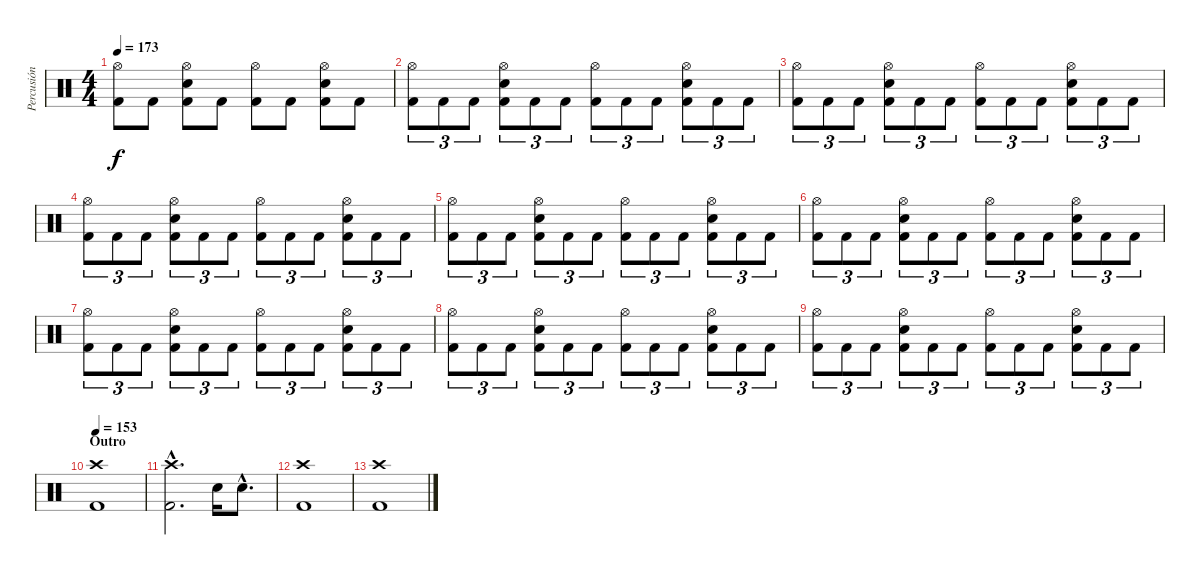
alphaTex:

\track ("Percusión" "Percusión") {instrument percussion}
\staff {score}
\articulation defaults
\ts (4 4)
\tempo 173
\clef neutral
\ks c
("Hi-Hat (open)" "Kick (hit) 2").8{dy f} "Kick (hit) 2".8 ("Hi-Hat (open)" "Snare (hit) 2" "Kick (hit) 2").8 "Kick (hit) 2".8 ("Hi-Hat (open)" "Kick (hit) 2").8 "Kick (hit) 2".8 ("Hi-Hat (open)" "Snare (hit) 2" "Kick (hit) 2").8 "Kick (hit) 2".8 |
("Hi-Hat (open)" "Kick (hit) 2").8{tu (3 2)} "Kick (hit) 2".8{tu (3 2)} "Kick (hit) 2".8{tu (3 2)} ("Hi-Hat (open)" "Snare (hit) 2" "Kick (hit) 2").8{tu (3 2)} "Kick (hit) 2".8{tu (3 2)} "Kick (hit) 2".8{tu (3 2)} ("Hi-Hat (open)" "Kick (hit) 2").8{tu (3 2)} "Kick (hit) 2".8{tu (3 2)} "Kick (hit) 2".8{tu (3 2)} ("Hi-Hat (open)" "Snare (hit) 2" "Kick (hit) 2").8{tu (3 2)} "Kick (hit) 2".8{tu (3 2)} "Kick (hit) 2".8{tu (3 2)} |
("Hi-Hat (open)" "Kick (hit) 2").8{tu (3 2)} "Kick (hit) 2".8{tu (3 2)} "Kick (hit) 2".8{tu (3 2)} ("Hi-Hat (open)" "Snare (hit) 2" "Kick (hit) 2").8{tu (3 2)} "Kick (hit) 2".8{tu (3 2)} "Kick (hit) 2".8{tu (3 2)} ("Hi-Hat (open)" "Kick (hit) 2").8{tu (3 2)} "Kick (hit) 2".8{tu (3 2)} "Kick (hit) 2".8{tu (3 2)} ("Hi-Hat (open)" "Snare (hit) 2" "Kick (hit) 2").8{tu (3 2)} "Kick (hit) 2".8{tu (3 2)} "Kick (hit) 2".8{tu (3 2)} |
("Hi-Hat (open)" "Kick (hit) 2").8{tu (3 2)} "Kick (hit) 2".8{tu (3 2)} "Kick (hit) 2".8{tu (3 2)} ("Hi-Hat (open)" "Snare (hit) 2" "Kick (hit) 2").8{tu (3 2)} "Kick (hit) 2".8{tu (3 2)} "Kick (hit) 2".8{tu (3 2)} ("Hi-Hat (open)" "Kick (hit) 2").8{tu (3 2)} "Kick (hit) 2".8{tu (3 2)} "Kick (hit) 2".8{tu (3 2)} ("Hi-Hat (open)" "Snare (hit) 2" "Kick (hit) 2").8{tu (3 2)} "Kick (hit) 2".8{tu (3 2)} "Kick (hit) 2".8{tu (3 2)} |
("Hi-Hat (open)" "Kick (hit) 2").8{tu (3 2)} "Kick (hit) 2".8{tu (3 2)} "Kick (hit) 2".8{tu (3 2)} ("Hi-Hat (open)" "Snare (hit) 2" "Kick (hit) 2").8{tu (3 2)} "Kick (hit) 2".8{tu (3 2)} "Kick (hit) 2".8{tu (3 2)} ("Hi-Hat (open)" "Kick (hit) 2").8{tu (3 2)} "Kick (hit) 2".8{tu (3 2)} "Kick (hit) 2".8{tu (3 2)} ("Hi-Hat (open)" "Snare (hit) 2" "Kick (hit) 2").8{tu (3 2)} "Kick (hit) 2".8{tu (3 2)} "Kick (hit) 2".8{tu (3 2)} |
("Hi-Hat (open)" "Kick (hit) 2").8{tu (3 2)} "Kick (hit) 2".8{tu (3 2)} "Kick (hit) 2".8{tu (3 2)} ("Hi-Hat (open)" "Snare (hit) 2" "Kick (hit) 2").8{tu (3 2)} "Kick (hit) 2".8{tu (3 2)} "Kick (hit) 2".8{tu (3 2)} ("Hi-Hat (open)" "Kick (hit) 2").8{tu (3 2)} "Kick (hit) 2".8{tu (3 2)} "Kick (hit) 2".8{tu (3 2)} ("Hi-Hat (open)" "Snare (hit) 2" "Kick (hit) 2").8{tu (3 2)} "Kick (hit) 2".8{tu (3 2)} "Kick (hit) 2".8{tu (3 2)} |
("Hi-Hat (open)" "Kick (hit) 2").8{tu (3 2)} "Kick (hit) 2".8{tu (3 2)} "Kick (hit) 2".8{tu (3 2)} ("Hi-Hat (open)" "Snare (hit) 2" "Kick (hit) 2").8{tu (3 2)} "Kick (hit) 2".8{tu (3 2)} "Kick (hit) 2".8{tu (3 2)} ("Hi-Hat (open)" "Kick (hit) 2").8{tu (3 2)} "Kick (hit) 2".8{tu (3 2)} "Kick (hit) 2".8{tu (3 2)} ("Hi-Hat (open)" "Snare (hit) 2" "Kick (hit) 2").8{tu (3 2)} "Kick (hit) 2".8{tu (3 2)} "Kick (hit) 2".8{tu (3 2)} |
("Hi-Hat (open)" "Kick (hit) 2").8{tu (3 2)} "Kick (hit) 2".8{tu (3 2)} "Kick (hit) 2".8{tu (3 2)} ("Hi-Hat (open)" "Snare (hit) 2" "Kick (hit) 2").8{tu (3 2)} "Kick (hit) 2".8{tu (3 2)} "Kick (hit) 2".8{tu (3 2)} ("Hi-Hat (open)" "Kick (hit) 2").8{tu (3 2)} "Kick (hit) 2".8{tu (3 2)} "Kick (hit) 2".8{tu (3 2)} ("Hi-Hat (open)" "Snare (hit) 2" "Kick (hit) 2").8{tu (3 2)} "Kick (hit) 2".8{tu (3 2)} "Kick (hit) 2".8{tu (3 2)} |
("Hi-Hat (open)" "Kick (hit) 2").8{tu (3 2)} "Kick (hit) 2".8{tu (3 2)} "Kick (hit) 2".8{tu (3 2)} ("Hi-Hat (open)" "Snare (hit) 2" "Kick (hit) 2").8{tu (3 2)} "Kick (hit) 2".8{tu (3 2)} "Kick (hit) 2".8{tu (3 2)} ("Hi-Hat (open)" "Kick (hit) 2").8{tu (3 2)} "Kick (hit) 2".8{tu (3 2)} "Kick (hit) 2".8{tu (3 2)} ("Hi-Hat (open)" "Snare (hit) 2" "Kick (hit) 2").8{tu (3 2)} "Kick (hit) 2".8{tu (3 2)} "Kick (hit) 2".8{tu (3 2)} |
\section ("" "Outro")
\tempo 153
("Crash high (hit)" "Kick (hit) 2").1 |
("Crash high (hit)"{hac} "Kick (hit) 2"{hac}).2{d} "Snare (hit) 2".16 "Snare (hit) 2"{hac}.8{d} |
("Crash high (hit)" "Kick (hit) 2").1 |
("Crash high (hit)" "Kick (hit) 2").1
